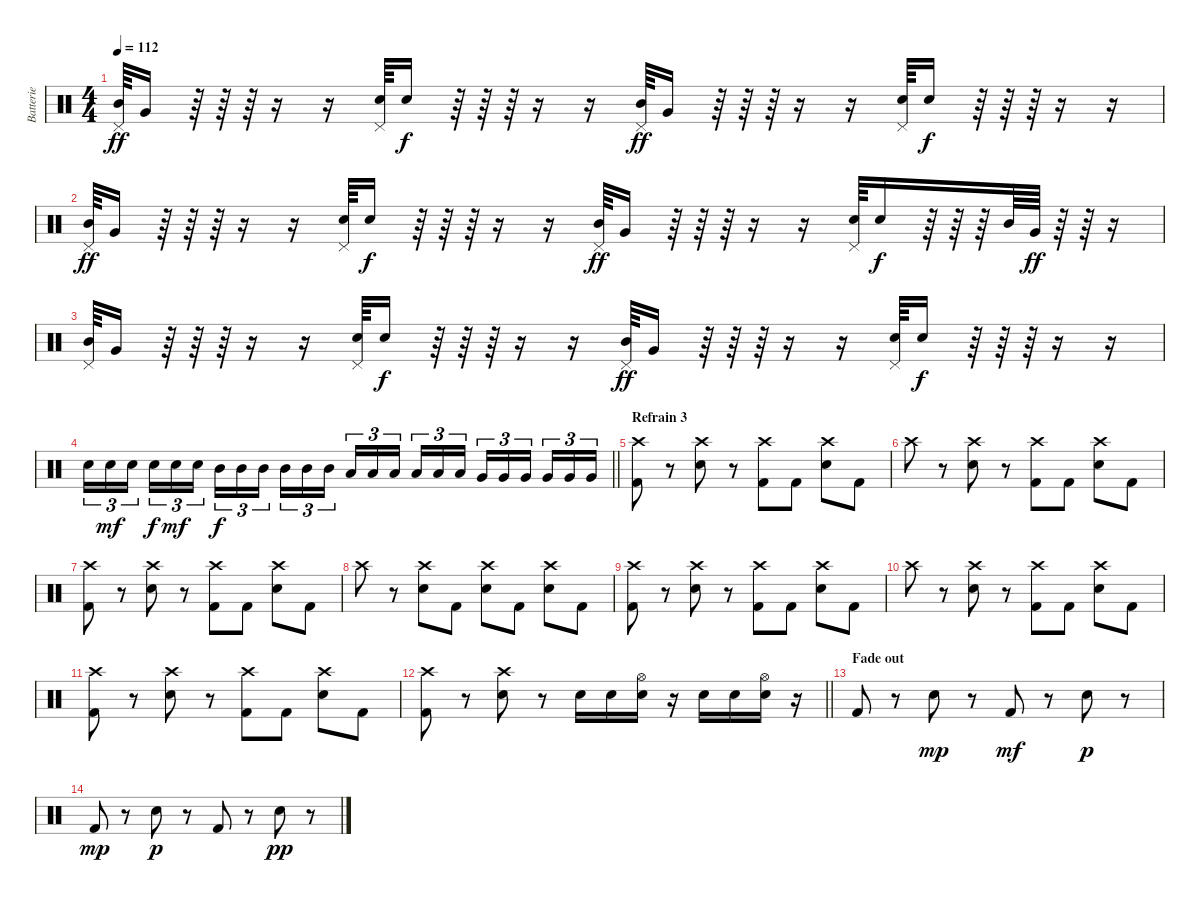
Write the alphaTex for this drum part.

\track ("Batterie" "Batterie") {instrument percussion}
\staff {score}
\articulation defaults
\ts (4 4)
\tempo 112
\clef neutral
\ks c
("Mid Tom (hit)" "Pedal Hi-Hat (hit)").64{dy ff} "Very Low Tom (hit)".16 r.64 r.64 r.64 r.16 r.16 ("Electric Snare (hit)" "Pedal Hi-Hat (hit)").64 "Electric Snare (hit)".16{dy f} r.64 r.64 r.64 r.16 r.16 ("Mid Tom (hit)" "Pedal Hi-Hat (hit)").64{dy ff} "Very Low Tom (hit)".16 r.64 r.64 r.64 r.16 r.16 ("Electric Snare (hit)" "Pedal Hi-Hat (hit)").64 "Electric Snare (hit)".16{dy f} r.64 r.64 r.64 r.16 r.16 |
("Mid Tom (hit)" "Pedal Hi-Hat (hit)").64{dy ff} "Very Low Tom (hit)".16 r.64 r.64 r.64 r.16 r.16 ("Electric Snare (hit)" "Pedal Hi-Hat (hit)").64 "Electric Snare (hit)".16{dy f} r.64 r.64 r.64 r.16 r.16 ("Mid Tom (hit)" "Pedal Hi-Hat (hit)").64{dy ff} "Very Low Tom (hit)".16 r.64 r.64 r.64 r.16 r.16 ("Electric Snare (hit)" "Pedal Hi-Hat (hit)").64 "Electric Snare (hit)".16{dy f} r.64 r.64 r.64 "Mid Tom (hit)".64 "Very Low Tom (hit)".64{dy ff} r.64 r.64 r.16 |
("Mid Tom (hit)" "Pedal Hi-Hat (hit)").64 "Very Low Tom (hit)".16 r.64 r.64 r.64 r.16 r.16 ("Electric Snare (hit)" "Pedal Hi-Hat (hit)").64 "Electric Snare (hit)".16{dy f} r.64 r.64 r.64 r.16 r.16 ("Mid Tom (hit)" "Pedal Hi-Hat (hit)").64{dy ff} "Very Low Tom (hit)".16 r.64 r.64 r.64 r.16 r.16 ("Electric Snare (hit)" "Pedal Hi-Hat (hit)").64 "Electric Snare (hit)".16{dy f} r.64 r.64 r.64 r.16 r.16 |
\barLineRight lightlight "Electric Snare (hit)".16{tu (3 2)} "Electric Snare (hit)".16{tu (3 2) dy mf} "Electric Snare (hit)".16{tu (3 2) beam splitsecondary} "Electric Snare (hit)".16{tu (3 2) dy f} "Electric Snare (hit)".16{tu (3 2) dy mf} "Electric Snare (hit)".16{tu (3 2)} "Mid Tom (hit)".16{tu (3 2) dy f} "Mid Tom (hit)".16{tu (3 2)} "Mid Tom (hit)".16{tu (3 2) beam splitsecondary} "Mid Tom (hit)".16{tu (3 2)} "Mid Tom (hit)".16{tu (3 2)} "Mid Tom (hit)".16{tu (3 2)} "Low Tom (hit)".16{tu (3 2)} "Low Tom (hit)".16{tu (3 2)} "Low Tom (hit)".16{tu (3 2) beam splitsecondary} "Low Tom (hit)".16{tu (3 2)} "Low Tom (hit)".16{tu (3 2)} "Low Tom (hit)".16{tu (3 2)} "Very Low Tom (hit)".16{tu (3 2)} "Very Low Tom (hit)".16{tu (3 2)} "Very Low Tom (hit)".16{tu (3 2) beam splitsecondary} "Very Low Tom (hit)".16{tu (3 2)} "Very Low Tom (hit)".16{tu (3 2)} "Very Low Tom (hit)".16{tu (3 2)}
|
\section ("" "Refrain 3")
("Kick (hit) 2" "Crash high (hit)").8 r.8 ("Electric Snare (hit)" "Crash high (hit)").8 r.8 ("Kick (hit) 2" "Crash high (hit)").8 "Kick (hit) 2".8 ("Electric Snare (hit)" "Crash high (hit)").8 "Kick (hit) 2".8 |
"Crash high (hit)".8 r.8 ("Electric Snare (hit)" "Crash high (hit)").8 r.8 ("Kick (hit) 2" "Crash high (hit)").8 "Kick (hit) 2".8 ("Electric Snare (hit)" "Crash high (hit)").8 "Kick (hit) 2".8 |
("Kick (hit) 2" "Crash high (hit)").8 r.8 ("Electric Snare (hit)" "Crash high (hit)").8 r.8 ("Kick (hit) 2" "Crash high (hit)").8 "Kick (hit) 2".8 ("Electric Snare (hit)" "Crash high (hit)").8 "Kick (hit) 2".8 |
"Crash high (hit)".8 r.8 ("Electric Snare (hit)" "Crash high (hit)").8 "Kick (hit) 2".8 ("Electric Snare (hit)" "Crash high (hit)").8 "Kick (hit) 2".8 ("Electric Snare (hit)" "Crash high (hit)").8 "Kick (hit) 2".8 |
("Kick (hit) 2" "Crash high (hit)").8 r.8 ("Electric Snare (hit)" "Crash high (hit)").8 r.8 ("Kick (hit) 2" "Crash high (hit)").8 "Kick (hit) 2".8 ("Electric Snare (hit)" "Crash high (hit)").8 "Kick (hit) 2".8 |
"Crash high (hit)".8 r.8 ("Electric Snare (hit)" "Crash high (hit)").8 r.8 ("Kick (hit) 2" "Crash high (hit)").8 "Kick (hit) 2".8 ("Electric Snare (hit)" "Crash high (hit)").8 "Kick (hit) 2".8 |
("Kick (hit) 2" "Crash high (hit)").8 r.8 ("Electric Snare (hit)" "Crash high (hit)").8 r.8 ("Kick (hit) 2" "Crash high (hit)").8 "Kick (hit) 2".8 ("Electric Snare (hit)" "Crash high (hit)").8 "Kick (hit) 2".8 |
\barLineRight lightlight
("Kick (hit) 2" "Crash high (hit)").8 r.8 ("Electric Snare (hit)" "Crash high (hit)").8 r.8 "Electric Snare (hit)".16 "Electric Snare (hit)".16 ("Electric Snare (hit)" "Hi-Hat (open)").16 r.16 "Electric Snare (hit)".16 "Electric Snare (hit)".16 ("Electric Snare (hit)" "Hi-Hat (open)").16 r.16 |
\section ("" "Fade out")
"Kick (hit) 2".8 r.8 "Snare (hit) 2".8{dy mp} r.8 "Kick (hit) 2".8{dy mf} r.8 "Electric Snare (hit)".8{dy p} r.8 |
"Kick (hit) 2".8{dy mp} r.8 "Snare (hit) 2".8{dy p} r.8 "Kick (hit) 2".8 r.8 "Electric Snare (hit)".8{dy pp} r.8
